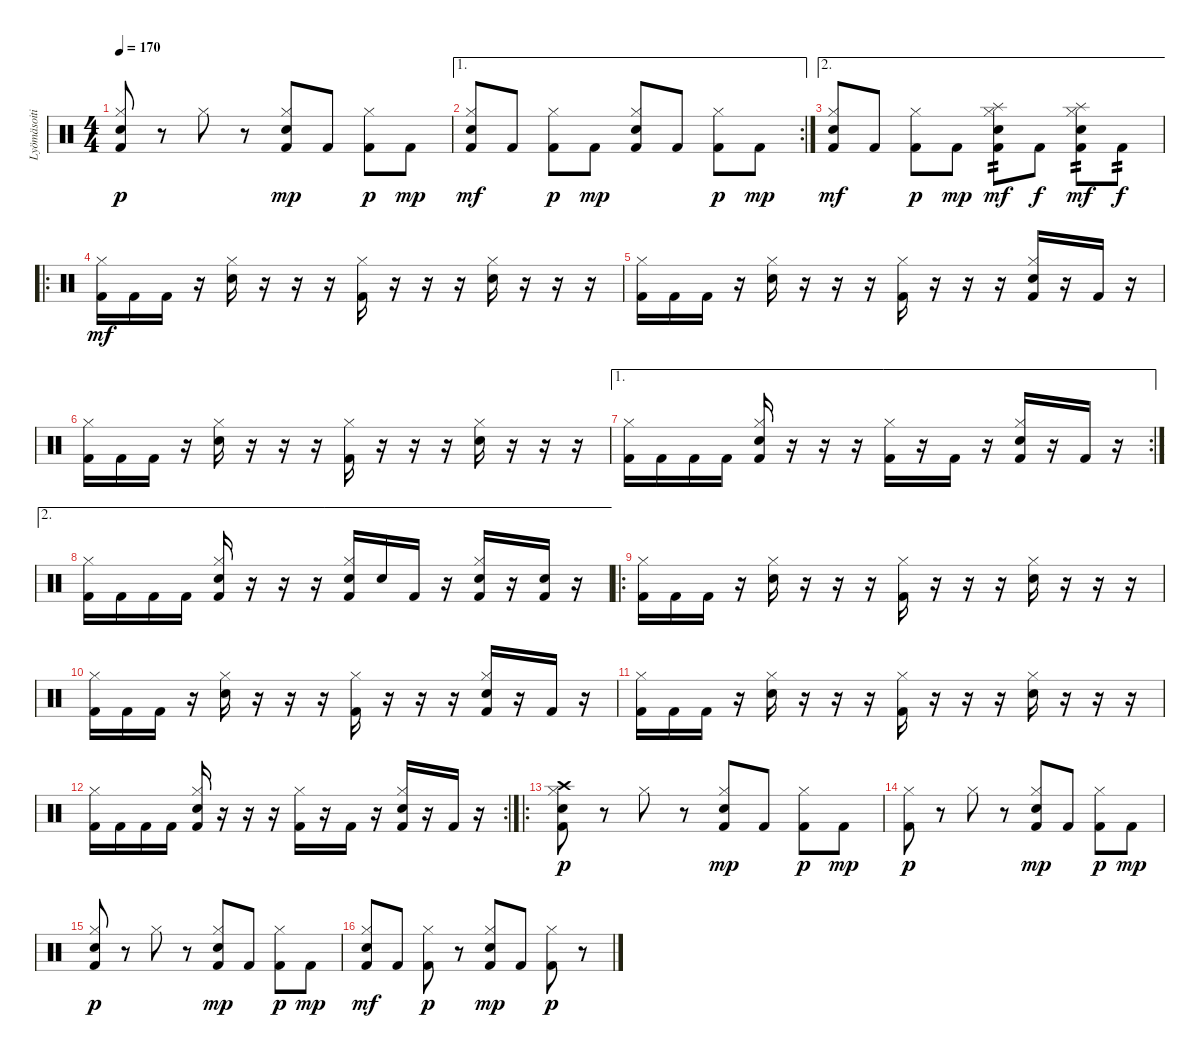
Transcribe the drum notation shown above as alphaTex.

\track ("Lyömäsoitin" "Lyömäsoiti") {instrument percussion}
\staff {score}
\articulation defaults
\ts (4 4)
\tempo 170
\clef neutral
\ks c
("Kick (hit) 2" "Hi-Hat (closed)" "Electric Snare (hit)").8{dy p} r.8 "Hi-Hat (closed)".8 r.8 ("Kick (hit) 2" "Hi-Hat (closed)" "Snare (hit) 2").8{dy mp} "Kick (hit) 2".8 ("Kick (hit) 2" "Hi-Hat (closed)").8{dy p} "Kick (hit) 2".8{dy mp} |
\ae 1
\rc 2
("Kick (hit) 2" "Hi-Hat (closed)" "Electric Snare (hit)").8{dy mf} "Kick (hit) 2".8 ("Kick (hit) 2" "Hi-Hat (closed)").8{dy p} "Kick (hit) 2".8{dy mp} ("Kick (hit) 2" "Hi-Hat (closed)" "Snare (hit) 2").8 "Kick (hit) 2".8 ("Kick (hit) 2" "Hi-Hat (closed)").8{dy p} "Kick (hit) 2".8{dy mp} |
\ae 2
("Kick (hit) 2" "Hi-Hat (closed)" "Electric Snare (hit)").8{dy mf} "Kick (hit) 2".8 ("Kick (hit) 2" "Hi-Hat (closed)").8{dy p} "Kick (hit) 2".8{dy mp} ("Kick (hit) 2" "Hi-Hat (closed)" "Electric Snare (hit)" "Splash (hit)").8{tp 2 dy mf} "Kick (hit) 2".8{dy f} ("Kick (hit) 2" "Hi-Hat (closed)" "Electric Snare (hit)" "Splash (hit)").8{tp 2 dy mf} "Kick (hit) 2".8{tp 2 dy f} |
\ro
("Kick (hit) 2" "Hi-Hat (closed)").16{dy mf} "Kick (hit) 2".16 "Kick (hit) 2".16 r.16 ("Hi-Hat (closed)" "Electric Snare (hit)").16 r.16 r.16 r.16 ("Kick (hit) 2" "Hi-Hat (closed)").16 r.16 r.16 r.16 ("Hi-Hat (closed)" "Electric Snare (hit)").16 r.16 r.16 r.16 |
("Kick (hit) 2" "Hi-Hat (closed)").16 "Kick (hit) 2".16 "Kick (hit) 2".16 r.16 ("Hi-Hat (closed)" "Electric Snare (hit)").16 r.16 r.16 r.16 ("Kick (hit) 2" "Hi-Hat (closed)").16 r.16 r.16 r.16 ("Kick (hit) 2" "Hi-Hat (closed)" "Electric Snare (hit)").16 r.16 "Kick (hit) 2".16 r.16 |
("Kick (hit) 2" "Hi-Hat (closed)").16 "Kick (hit) 2".16 "Kick (hit) 2".16 r.16 ("Hi-Hat (closed)" "Electric Snare (hit)").16 r.16 r.16 r.16 ("Kick (hit) 2" "Hi-Hat (closed)").16 r.16 r.16 r.16 ("Hi-Hat (closed)" "Electric Snare (hit)").16 r.16 r.16 r.16 |
\ae 1
\rc 2
("Kick (hit) 2" "Hi-Hat (closed)").16 "Kick (hit) 2".16 "Kick (hit) 2".16 "Kick (hit) 2".16 ("Kick (hit) 2" "Hi-Hat (closed)" "Electric Snare (hit)").16 r.16 r.16 r.16 ("Kick (hit) 2" "Hi-Hat (closed)").16 r.16 "Kick (hit) 2".16 r.16 ("Kick (hit) 2" "Hi-Hat (closed)" "Electric Snare (hit)").16 r.16 "Kick (hit) 2".16 r.16 |
\ae 2
("Kick (hit) 2" "Hi-Hat (closed)").16 "Kick (hit) 2".16 "Kick (hit) 2".16 "Kick (hit) 2".16 ("Kick (hit) 2" "Hi-Hat (closed)" "Electric Snare (hit)").16 r.16 r.16 r.16 ("Kick (hit) 2" "Hi-Hat (closed)" "Electric Snare (hit)").16 "Electric Snare (hit)".16 "Kick (hit) 2".16 r.16 ("Kick (hit) 2" "Hi-Hat (closed)" "Electric Snare (hit)").16 r.16 ("Kick (hit) 2" "Electric Snare (hit)").16 r.16 |
\ro
("Kick (hit) 2" "Hi-Hat (closed)").16 "Kick (hit) 2".16 "Kick (hit) 2".16 r.16 ("Hi-Hat (closed)" "Electric Snare (hit)").16 r.16 r.16 r.16 ("Kick (hit) 2" "Hi-Hat (closed)").16 r.16 r.16 r.16 ("Hi-Hat (closed)" "Electric Snare (hit)").16 r.16 r.16 r.16 |
("Kick (hit) 2" "Hi-Hat (closed)").16 "Kick (hit) 2".16 "Kick (hit) 2".16 r.16 ("Hi-Hat (closed)" "Electric Snare (hit)").16 r.16 r.16 r.16 ("Kick (hit) 2" "Hi-Hat (closed)").16 r.16 r.16 r.16 ("Kick (hit) 2" "Hi-Hat (closed)" "Electric Snare (hit)").16 r.16 "Kick (hit) 2".16 r.16 |
("Kick (hit) 2" "Hi-Hat (closed)").16 "Kick (hit) 2".16 "Kick (hit) 2".16 r.16 ("Hi-Hat (closed)" "Electric Snare (hit)").16 r.16 r.16 r.16 ("Kick (hit) 2" "Hi-Hat (closed)").16 r.16 r.16 r.16 ("Hi-Hat (closed)" "Electric Snare (hit)").16 r.16 r.16 r.16 |
\rc 2
("Kick (hit) 2" "Hi-Hat (closed)").16 "Kick (hit) 2".16 "Kick (hit) 2".16 "Kick (hit) 2".16 ("Kick (hit) 2" "Hi-Hat (closed)" "Electric Snare (hit)").16 r.16 r.16 r.16 ("Kick (hit) 2" "Hi-Hat (closed)").16 r.16 "Kick (hit) 2".16 r.16 ("Kick (hit) 2" "Hi-Hat (closed)" "Electric Snare (hit)").16 r.16 "Kick (hit) 2".16 r.16 |
\ro
("Kick (hit) 2" "Hi-Hat (closed)" "Crash high (hit)" "Electric Snare (hit)").8{dy p} r.8 "Hi-Hat (closed)".8 r.8 ("Kick (hit) 2" "Hi-Hat (closed)" "Snare (hit) 2").8{dy mp} "Kick (hit) 2".8 ("Kick (hit) 2" "Hi-Hat (closed)").8{dy p} "Kick (hit) 2".8{dy mp} |
("Kick (hit) 2" "Hi-Hat (closed)").8{dy p} r.8 "Hi-Hat (closed)".8 r.8 ("Kick (hit) 2" "Hi-Hat (closed)" "Snare (hit) 2").8{dy mp} "Kick (hit) 2".8 ("Kick (hit) 2" "Hi-Hat (closed)").8{dy p} "Kick (hit) 2".8{dy mp} |
("Kick (hit) 2" "Hi-Hat (closed)" "Electric Snare (hit)").8{dy p} r.8 "Hi-Hat (closed)".8 r.8 ("Kick (hit) 2" "Hi-Hat (closed)" "Snare (hit) 2").8{dy mp} "Kick (hit) 2".8 ("Kick (hit) 2" "Hi-Hat (closed)").8{dy p} "Kick (hit) 2".8{dy mp} |
("Kick (hit) 2" "Hi-Hat (closed)" "Electric Snare (hit)").8{dy mf} "Kick (hit) 2".8 ("Kick (hit) 2" "Hi-Hat (closed)").8{dy p} r.8 ("Kick (hit) 2" "Hi-Hat (closed)" "Snare (hit) 2").8{dy mp} "Kick (hit) 2".8 ("Kick (hit) 2" "Hi-Hat (closed)").8{dy p} r.8
